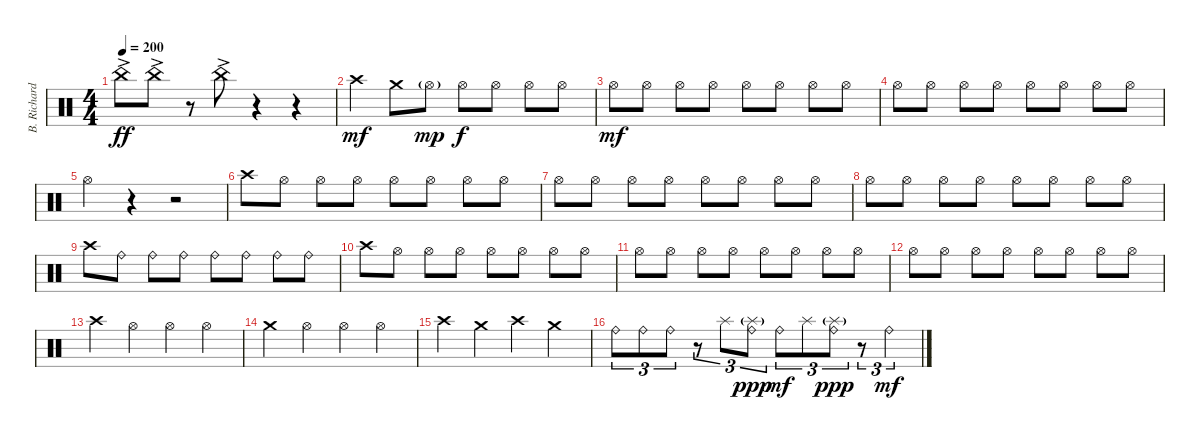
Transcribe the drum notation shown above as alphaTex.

\track ("B. Richardson Drums" "B. Richard") {instrument percussion}
\staff {score}
\articulation defaults
\ts (4 4)
\tempo 200
\clef neutral
\ks c "China (hit)"{ac}.8{dy ff} "China (hit)"{ac}.8
r.8 "China (hit)"{ac}.8 r.4 r.4 |
"Crash high (hit)".4{dy mf} "Crash medium (hit)".8 "Hi-Hat (open)"{g}.8{dy mp} "Hi-Hat (open)".8{dy f} "Hi-Hat (open)".8 "Hi-Hat (open)".8 "Hi-Hat (open)".8 |
"Hi-Hat (open)".8{dy mf} "Hi-Hat (open)".8 "Hi-Hat (open)".8 "Hi-Hat (open)".8 "Hi-Hat (open)".8 "Hi-Hat (open)".8 "Hi-Hat (open)".8 "Hi-Hat (open)".8 |
"Hi-Hat (open)".8 "Hi-Hat (open)".8 "Hi-Hat (open)".8 "Hi-Hat (open)".8 "Hi-Hat (open)".8 "Hi-Hat (open)".8 "Hi-Hat (open)".8 "Hi-Hat (open)".8 |
"Hi-Hat (open)".4 r.4 r.2 |
"Crash high (hit)".8 "Hi-Hat (open)".8 "Hi-Hat (open)".8 "Hi-Hat (open)".8 "Hi-Hat (open)".8 "Hi-Hat (open)".8 "Hi-Hat (open)".8 "Hi-Hat (open)".8 |
"Hi-Hat (open)".8 "Hi-Hat (open)".8 "Hi-Hat (open)".8 "Hi-Hat (open)".8 "Hi-Hat (open)".8 "Hi-Hat (open)".8 "Hi-Hat (open)".8 "Hi-Hat (open)".8 |
"Hi-Hat (open)".8 "Hi-Hat (open)".8 "Hi-Hat (open)".8 "Hi-Hat (open)".8 "Hi-Hat (open)".8 "Hi-Hat (open)".8 "Hi-Hat (open)".8 "Hi-Hat (open)".8 |
"Crash high (hit)".8 "Ride (bell)".8 "Ride (bell)".8 "Ride (bell)".8 "Ride (bell)".8 "Ride (bell)".8 "Ride (bell)".8 "Ride (bell)".8 |
"Crash high (hit)".8 "Hi-Hat (open)".8 "Hi-Hat (open)".8 "Hi-Hat (open)".8 "Hi-Hat (open)".8 "Hi-Hat (open)".8 "Hi-Hat (open)".8 "Hi-Hat (open)".8 |
"Hi-Hat (open)".8 "Hi-Hat (open)".8 "Hi-Hat (open)".8 "Hi-Hat (open)".8 "Hi-Hat (open)".8 "Hi-Hat (open)".8 "Hi-Hat (open)".8 "Hi-Hat (open)".8 |
"Hi-Hat (open)".8 "Hi-Hat (open)".8 "Hi-Hat (open)".8 "Hi-Hat (open)".8 "Hi-Hat (open)".8 "Hi-Hat (open)".8 "Hi-Hat (open)".8 "Hi-Hat (open)".8 |
"Crash high (hit)".4 "Hi-Hat (open)".4 "Hi-Hat (open)".4 "Hi-Hat (open)".4 |
"Crash medium (hit)".4 "Hi-Hat (open)".4 "Hi-Hat (open)".4 "Hi-Hat (open)".4 |
"Crash high (hit)".4 "Crash medium (hit)".4 "Crash high (hit)".4 "Crash medium (hit)".4 |
"Ride (bell)".8{tu (3 2)} "Ride (bell)".8{tu (3 2)} "Ride (bell)".8{tu (3 2)} r.8{tu (3 2)} "Splash (hit)".8{tu (3 2)} ("Ride (bell)" "Splash (hit)"{g}).8{tu (3 2) dy ppp} "Ride (bell)".8{tu (3 2) dy mf} "Splash (hit)".8{tu (3 2)} ("Ride (bell)" "Splash (hit)"{g}).8{tu (3 2) dy ppp} r.8{tu (3 2)} "Ride (bell)".4{tu (3 2) dy mf}
